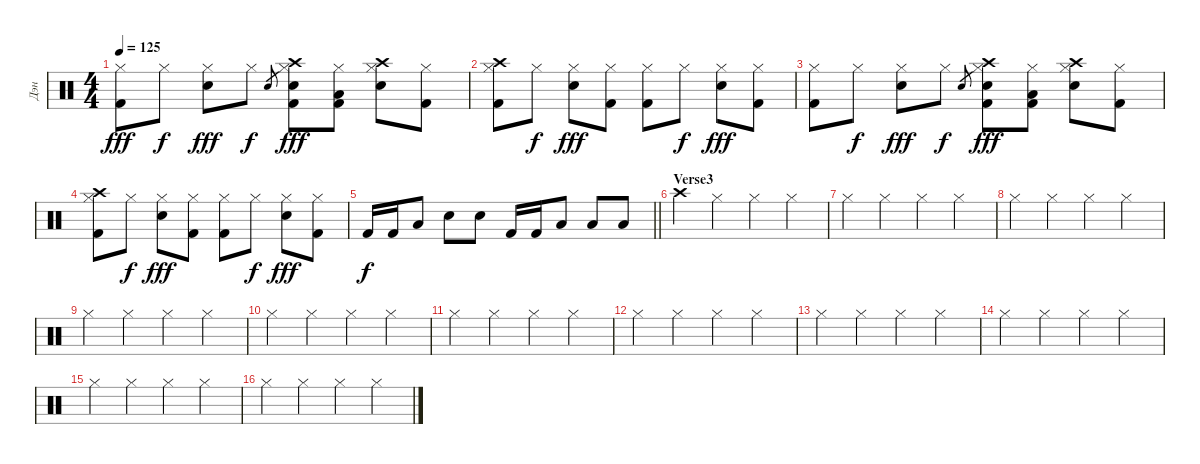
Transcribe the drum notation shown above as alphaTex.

\track ("Дэн" "Дэн") {instrument percussion}
\staff {score}
\articulation defaults
\ts (4 4)
\tempo 125
\clef neutral
\ks c
("Hi-Hat (closed)" "Kick (hit) 2").8{dy fff} "Hi-Hat (closed)".8{dy f} ("Hi-Hat (closed)" "Electric Snare (hit)").8{dy fff} "Hi-Hat (closed)".8{dy f} "Electric Snare (hit)".8{gr} ("Crash high (hit)" "Hi-Hat (closed)" "Electric Snare (hit)" "Kick (hit) 2").8{dy fff} ("Hi-Hat (closed)" "Low Tom (hit)" "Kick (hit) 2").8 ("Crash high (hit)" "Hi-Hat (closed)" "Electric Snare (hit)").8 ("Hi-Hat (closed)" "Kick (hit) 2").8 |
("Crash high (hit)" "Hi-Hat (closed)" "Kick (hit) 2").8 "Hi-Hat (closed)".8{dy f} ("Hi-Hat (closed)" "Electric Snare (hit)").8{dy fff} ("Hi-Hat (closed)" "Kick (hit) 2").8 ("Hi-Hat (closed)" "Kick (hit) 2").8 "Hi-Hat (closed)".8{dy f} ("Hi-Hat (closed)" "Electric Snare (hit)").8{dy fff} ("Hi-Hat (closed)" "Kick (hit) 2").8 |
("Hi-Hat (closed)" "Kick (hit) 2").8 "Hi-Hat (closed)".8{dy f} ("Hi-Hat (closed)" "Electric Snare (hit)").8{dy fff} "Hi-Hat (closed)".8{dy f} "Electric Snare (hit)".8{gr} ("Crash high (hit)" "Hi-Hat (closed)" "Electric Snare (hit)" "Kick (hit) 2").8{dy fff} ("Hi-Hat (closed)" "Low Tom (hit)" "Kick (hit) 2").8 ("Crash high (hit)" "Hi-Hat (closed)" "Electric Snare (hit)").8 ("Hi-Hat (closed)" "Kick (hit) 2").8 |
("Crash high (hit)" "Hi-Hat (closed)" "Kick (hit) 2").8 "Hi-Hat (closed)".8{dy f} ("Hi-Hat (closed)" "Electric Snare (hit)").8{dy fff} ("Hi-Hat (closed)" "Kick (hit) 2").8 ("Hi-Hat (closed)" "Kick (hit) 2").8 "Hi-Hat (closed)".8{dy f} ("Hi-Hat (closed)" "Electric Snare (hit)").8{dy fff} ("Hi-Hat (closed)" "Kick (hit) 2").8 |
\barLineRight lightlight "Kick (hit) 2".16{dy f} "Kick (hit) 2".16 "Low Tom (hit)".8 "Electric Snare (hit)".8 "Electric Snare (hit)".8 "Kick (hit) 2".16 "Kick (hit) 2".16 "Low Tom (hit)".8 "Low Tom (hit)".8 "Low Tom (hit)".8
|
\section ("" "Verse3")
"Crash high (hit)".4 "Hi-Hat (closed)".4 "Hi-Hat (closed)".4 "Hi-Hat (closed)".4 |
"Hi-Hat (closed)".4 "Hi-Hat (closed)".4 "Hi-Hat (closed)".4 "Hi-Hat (closed)".4 |
"Hi-Hat (closed)".4 "Hi-Hat (closed)".4 "Hi-Hat (closed)".4 "Hi-Hat (closed)".4 |
"Hi-Hat (closed)".4 "Hi-Hat (closed)".4 "Hi-Hat (closed)".4 "Hi-Hat (closed)".4 |
"Hi-Hat (closed)".4 "Hi-Hat (closed)".4 "Hi-Hat (closed)".4 "Hi-Hat (closed)".4 |
"Hi-Hat (closed)".4 "Hi-Hat (closed)".4 "Hi-Hat (closed)".4 "Hi-Hat (closed)".4 |
"Hi-Hat (closed)".4 "Hi-Hat (closed)".4 "Hi-Hat (closed)".4 "Hi-Hat (closed)".4 |
"Hi-Hat (closed)".4 "Hi-Hat (closed)".4 "Hi-Hat (closed)".4 "Hi-Hat (closed)".4 |
"Hi-Hat (closed)".4 "Hi-Hat (closed)".4 "Hi-Hat (closed)".4 "Hi-Hat (closed)".4 |
"Hi-Hat (closed)".4 "Hi-Hat (closed)".4 "Hi-Hat (closed)".4 "Hi-Hat (closed)".4 |
"Hi-Hat (closed)".4 "Hi-Hat (closed)".4 "Hi-Hat (closed)".4 "Hi-Hat (closed)".4
